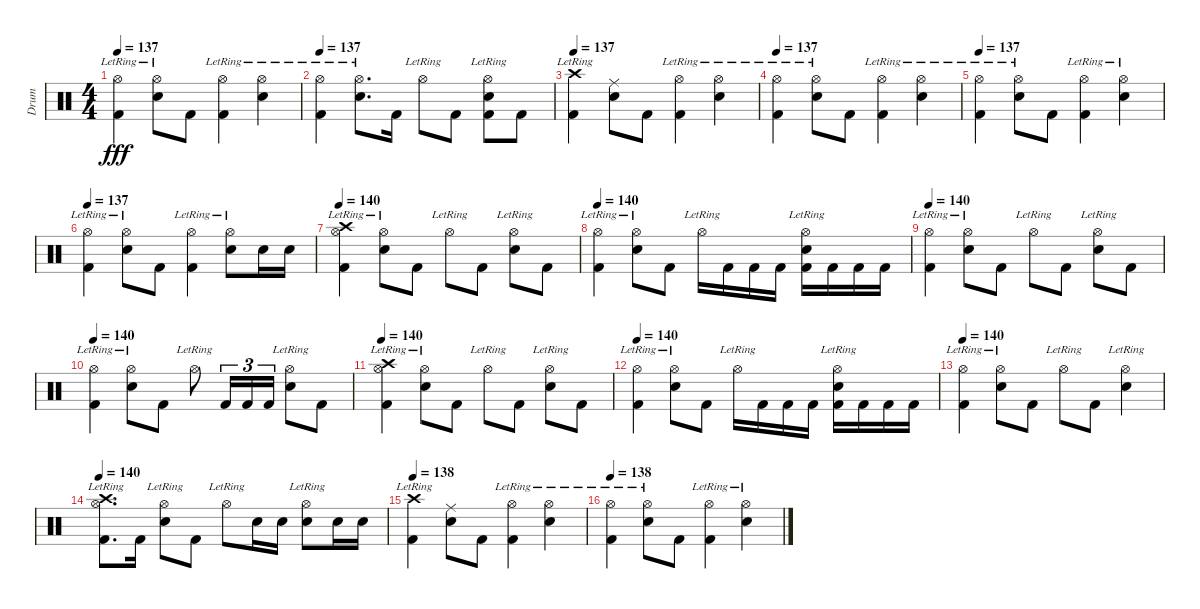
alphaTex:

\track ("Drum" "Drum") {instrument percussion}
\staff {score}
\articulation defaults
\ts (4 4)
\tempo 137
\clef neutral
\ks c
("Hi-Hat (open)"{lr} "Kick (hit) 2").4{dy fff} ("Hi-Hat (open)"{lr} "Electric Snare (hit)").8 "Kick (hit) 2".8 ("Hi-Hat (open)"{lr} "Kick (hit) 2").4 ("Hi-Hat (open)"{lr} "Electric Snare (hit)").4 |
\tempo 137
("Hi-Hat (open)"{lr} "Kick (hit) 2").4 ("Hi-Hat (open)"{lr} "Electric Snare (hit)").8{d} "Kick (hit) 2".16 "Hi-Hat (open)"{lr}.8 "Kick (hit) 2".8 ("Hi-Hat (open)"{lr} "Electric Snare (hit)" "Kick (hit) 2").8 "Kick (hit) 2".8 |
\tempo 137
("Crash high (hit)"{lr} "Kick (hit) 2").4 ("Ride (middle)" "Electric Snare (hit)").8 "Kick (hit) 2".8 ("Hi-Hat (open)"{lr} "Kick (hit) 2").4 ("Hi-Hat (open)"{lr} "Electric Snare (hit)").4 |
\tempo 137
("Hi-Hat (open)"{lr} "Kick (hit) 2").4 ("Hi-Hat (open)"{lr} "Electric Snare (hit)").8 "Kick (hit) 2".8 ("Hi-Hat (open)"{lr} "Kick (hit) 2").4 ("Hi-Hat (open)"{lr} "Electric Snare (hit)").4 |
\tempo 137
("Hi-Hat (open)"{lr} "Kick (hit) 2").4 ("Hi-Hat (open)"{lr} "Electric Snare (hit)").8 "Kick (hit) 2".8 ("Hi-Hat (open)"{lr} "Kick (hit) 2").4 ("Hi-Hat (open)"{lr} "Electric Snare (hit)").4 |
\tempo 137
("Hi-Hat (open)"{lr} "Kick (hit) 2").4 ("Hi-Hat (open)"{lr} "Electric Snare (hit)").8 "Kick (hit) 2".8 ("Hi-Hat (open)"{lr} "Kick (hit) 2").4 ("Hi-Hat (open)"{lr} "Electric Snare (hit)").8 "Electric Snare (hit)".16 "Electric Snare (hit)".16 |
\tempo 140
("Crash high (hit)"{lr} "Hi-Hat (open)"{lr} "Kick (hit) 2").4 ("Hi-Hat (open)"{lr} "Electric Snare (hit)").8 "Kick (hit) 2".8 "Hi-Hat (open)"{lr}.8 "Kick (hit) 2".8 ("Hi-Hat (open)"{lr} "Electric Snare (hit)").8 "Kick (hit) 2".8 |
\tempo 140
("Hi-Hat (open)"{lr} "Kick (hit) 2").4 ("Hi-Hat (open)"{lr} "Electric Snare (hit)").8 "Kick (hit) 2".8 "Hi-Hat (open)"{lr}.16 "Kick (hit) 2".16 "Kick (hit) 2".16 "Kick (hit) 2".16 ("Hi-Hat (open)"{lr} "Electric Snare (hit)" "Kick (hit) 2").16 "Kick (hit) 2".16 "Kick (hit) 2".16 "Kick (hit) 2".16 |
\tempo 140
("Hi-Hat (open)"{lr} "Kick (hit) 2").4 ("Hi-Hat (open)"{lr} "Electric Snare (hit)").8 "Kick (hit) 2".8 "Hi-Hat (open)"{lr}.8 "Kick (hit) 2".8 ("Hi-Hat (open)"{lr} "Electric Snare (hit)").8 "Kick (hit) 2".8 |
\tempo 140
("Hi-Hat (open)"{lr} "Kick (hit) 2").4 ("Hi-Hat (open)"{lr} "Electric Snare (hit)").8 "Kick (hit) 2".8 "Hi-Hat (open)"{lr}.8 "Kick (hit) 2".16{tu (3 2)} "Kick (hit) 2".16{tu (3 2)} "Kick (hit) 2".16{tu (3 2)} ("Hi-Hat (open)"{lr} "Electric Snare (hit)").8 "Kick (hit) 2".8 |
\tempo 140
("Crash high (hit)"{lr} "Hi-Hat (open)"{lr} "Kick (hit) 2").4 ("Hi-Hat (open)"{lr} "Electric Snare (hit)").8 "Kick (hit) 2".8 "Hi-Hat (open)"{lr}.8 "Kick (hit) 2".8 ("Hi-Hat (open)"{lr} "Electric Snare (hit)").8 "Kick (hit) 2".8 |
\tempo 140
("Hi-Hat (open)"{lr} "Kick (hit) 2").4 ("Hi-Hat (open)"{lr} "Electric Snare (hit)").8 "Kick (hit) 2".8 "Hi-Hat (open)"{lr}.16 "Kick (hit) 2".16 "Kick (hit) 2".16 "Kick (hit) 2".16 ("Hi-Hat (open)"{lr} "Electric Snare (hit)" "Kick (hit) 2").16 "Kick (hit) 2".16 "Kick (hit) 2".16 "Kick (hit) 2".16 |
\tempo 140
("Hi-Hat (open)"{lr} "Kick (hit) 2").4 ("Hi-Hat (open)"{lr} "Electric Snare (hit)").8 "Kick (hit) 2".8 "Hi-Hat (open)"{lr}.8 "Kick (hit) 2".8 ("Hi-Hat (open)"{lr} "Electric Snare (hit)").4 |
\tempo 140
("Crash high (hit)"{lr} "Hi-Hat (open)"{lr} "Kick (hit) 2").8{d} "Kick (hit) 2".16 ("Hi-Hat (open)"{lr} "Electric Snare (hit)").8 "Kick (hit) 2".8 "Hi-Hat (open)"{lr}.8 "Electric Snare (hit)".16 "Electric Snare (hit)".16 ("Hi-Hat (open)"{lr} "Electric Snare (hit)").8 "Electric Snare (hit)".16 "Electric Snare (hit)".16 |
\tempo 138
("Crash high (hit)"{lr} "Kick (hit) 2").4 ("Ride (middle)" "Electric Snare (hit)").8 "Kick (hit) 2".8 ("Hi-Hat (open)"{lr} "Kick (hit) 2").4 ("Hi-Hat (open)"{lr} "Electric Snare (hit)").4 |
\tempo 138
("Hi-Hat (open)"{lr} "Kick (hit) 2").4 ("Hi-Hat (open)"{lr} "Electric Snare (hit)").8 "Kick (hit) 2".8 ("Hi-Hat (open)"{lr} "Kick (hit) 2").4 ("Hi-Hat (open)"{lr} "Electric Snare (hit)").4
